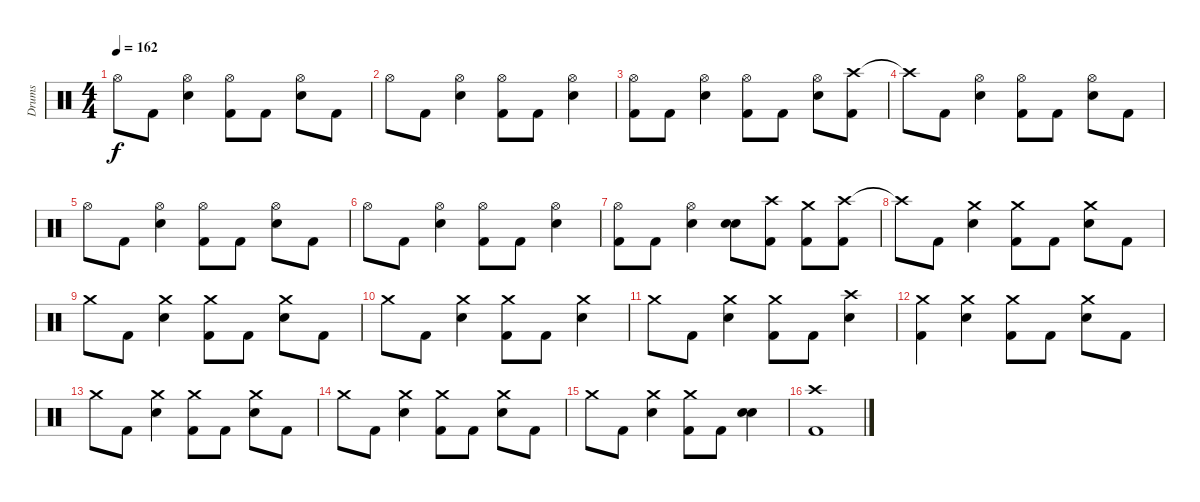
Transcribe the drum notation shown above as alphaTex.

\track ("Drums" "Drums") {instrument percussion}
\staff {score}
\articulation defaults
\ts (4 4)
\tempo 162
\clef neutral
\ks c "Hi-Hat (open)".8{dy f} "Kick (hit) 2".8
("Hi-Hat (open)" "Snare (hit) 2").4 ("Hi-Hat (open)" "Kick (hit) 2").8 "Kick (hit) 2".8 ("Hi-Hat (open)" "Snare (hit) 2").8 "Kick (hit) 2".8 |
"Hi-Hat (open)".8 "Kick (hit) 2".8 ("Hi-Hat (open)" "Snare (hit) 2").4 ("Hi-Hat (open)" "Kick (hit) 2").8 "Kick (hit) 2".8 ("Hi-Hat (open)" "Snare (hit) 2").4 |
("Hi-Hat (open)" "Kick (hit) 2").8 "Kick (hit) 2".8 ("Hi-Hat (open)" "Snare (hit) 2").4 ("Hi-Hat (open)" "Kick (hit) 2").8 "Kick (hit) 2".8 ("Hi-Hat (open)" "Snare (hit) 2").8 ("Crash high (hit)" "Kick (hit) 2").8 |
"Crash high (hit)"{t}.8 "Kick (hit) 2".8 ("Hi-Hat (open)" "Snare (hit) 2").4 ("Hi-Hat (open)" "Kick (hit) 2").8 "Kick (hit) 2".8 ("Hi-Hat (open)" "Snare (hit) 2").8 "Kick (hit) 2".8 |
"Hi-Hat (open)".8 "Kick (hit) 2".8 ("Hi-Hat (open)" "Snare (hit) 2").4 ("Hi-Hat (open)" "Kick (hit) 2").8 "Kick (hit) 2".8 ("Hi-Hat (open)" "Snare (hit) 2").8 "Kick (hit) 2".8 |
"Hi-Hat (open)".8 "Kick (hit) 2".8 ("Hi-Hat (open)" "Snare (hit) 2").4 ("Hi-Hat (open)" "Kick (hit) 2").8 "Kick (hit) 2".8 ("Hi-Hat (open)" "Snare (hit) 2").4 |
("Hi-Hat (open)" "Kick (hit) 2").8 "Kick (hit) 2".8 ("Hi-Hat (open)" "Snare (hit) 2").4 ("Snare (hit) 2" "Snare (hit) 2").8 ("Crash high (hit)" "Kick (hit) 2").8 ("Crash medium (hit)" "Kick (hit) 2").8 ("Crash high (hit)" "Kick (hit) 2").8 |
"Crash high (hit)"{t}.8 "Kick (hit) 2".8 ("Crash medium (hit)" "Snare (hit) 2").4 ("Crash medium (hit)" "Kick (hit) 2").8 "Kick (hit) 2".8 ("Crash medium (hit)" "Snare (hit) 2").8 "Kick (hit) 2".8 |
"Crash medium (hit)".8 "Kick (hit) 2".8 ("Crash medium (hit)" "Snare (hit) 2").4 ("Crash medium (hit)" "Kick (hit) 2").8 "Kick (hit) 2".8 ("Crash medium (hit)" "Snare (hit) 2").8 "Kick (hit) 2".8 |
"Crash medium (hit)".8 "Kick (hit) 2".8 ("Crash medium (hit)" "Snare (hit) 2").4 ("Crash medium (hit)" "Kick (hit) 2").8 "Kick (hit) 2".8 ("Crash medium (hit)" "Snare (hit) 2").4 |
"Crash medium (hit)".8 "Kick (hit) 2".8 ("Crash medium (hit)" "Snare (hit) 2").4 ("Crash medium (hit)" "Kick (hit) 2").8 "Kick (hit) 2".8 ("Crash high (hit)" "Snare (hit) 2").4 |
("Crash medium (hit)" "Kick (hit) 2").4 ("Crash medium (hit)" "Snare (hit) 2").4 ("Crash medium (hit)" "Kick (hit) 2").8 "Kick (hit) 2".8 ("Crash medium (hit)" "Snare (hit) 2").8 "Kick (hit) 2".8 |
"Crash medium (hit)".8 "Kick (hit) 2".8 ("Crash medium (hit)" "Snare (hit) 2").4 ("Crash medium (hit)" "Kick (hit) 2").8 "Kick (hit) 2".8 ("Crash medium (hit)" "Snare (hit) 2").8 "Kick (hit) 2".8 |
"Crash medium (hit)".8 "Kick (hit) 2".8 ("Crash medium (hit)" "Snare (hit) 2").4 ("Crash medium (hit)" "Kick (hit) 2").8 "Kick (hit) 2".8 ("Crash medium (hit)" "Snare (hit) 2").8 "Kick (hit) 2".8 |
"Crash medium (hit)".8 "Kick (hit) 2".8 ("Crash medium (hit)" "Snare (hit) 2").4 ("Crash medium (hit)" "Kick (hit) 2").8 "Kick (hit) 2".8 ("Snare (hit) 2" "Snare (hit) 2").4 |
("Crash high (hit)" "Kick (hit) 2").1
